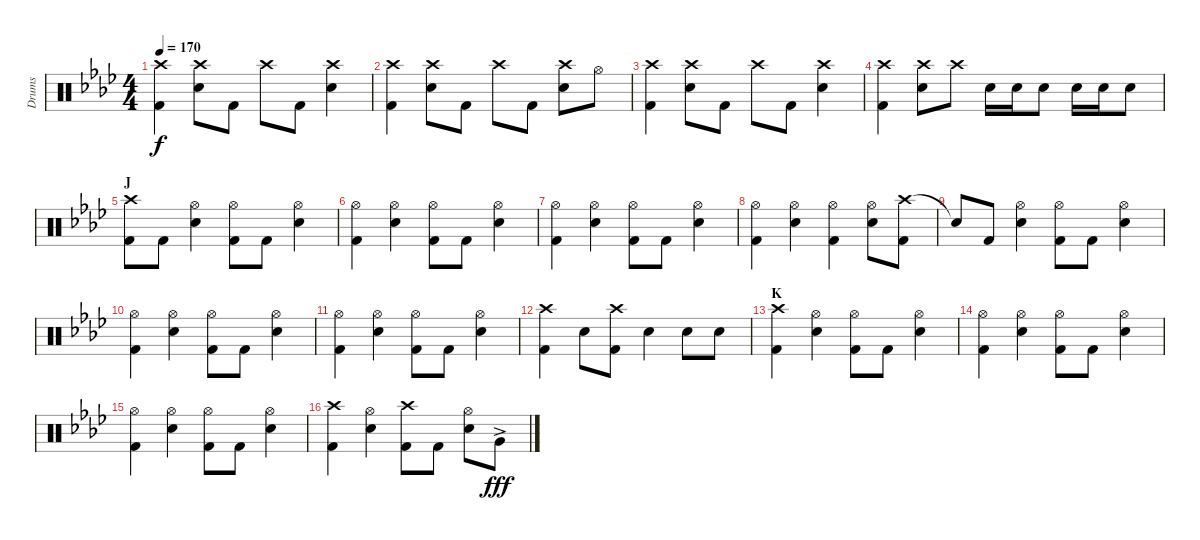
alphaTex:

\track ("Drums" "Drums") {instrument percussion}
\staff {score}
\articulation defaults
\ts (4 4)
\tempo 170
\clef neutral
\ks ab
("Crash high (hit)" "Kick (hit) 2").4{dy f} ("Crash high (hit)" "Snare (hit) 2").8 "Kick (hit) 2".8 "Crash high (hit)".8 "Kick (hit) 2".8 ("Crash high (hit)" "Snare (hit) 2").4 |
("Crash high (hit)" "Kick (hit) 2").4 ("Crash high (hit)" "Snare (hit) 2").8 "Kick (hit) 2".8 "Crash high (hit)".8 "Kick (hit) 2".8 ("Crash high (hit)" "Snare (hit) 2").8 "Hi-Hat (open)".8 |
("Crash high (hit)" "Kick (hit) 2").4 ("Crash high (hit)" "Snare (hit) 2").8 "Kick (hit) 2".8 "Crash high (hit)".8 "Kick (hit) 2".8 ("Crash high (hit)" "Snare (hit) 2").4 |
("Crash high (hit)" "Kick (hit) 2").4 ("Crash high (hit)" "Snare (hit) 2").8 "Crash high (hit)".8 "Snare (hit) 2".16 "Snare (hit) 2".16 "Snare (hit) 2".8 "Snare (hit) 2".16 "Snare (hit) 2".16 "Snare (hit) 2".8 |
\section ("" "J")
("Crash high (hit)" "Kick (hit) 2").8 "Kick (hit) 2".8 ("Hi-Hat (open)" "Snare (hit) 2").4 ("Hi-Hat (open)" "Kick (hit) 2").8 "Kick (hit) 2".8 ("Hi-Hat (open)" "Snare (hit) 2").4 |
("Hi-Hat (open)" "Kick (hit) 2").4 ("Hi-Hat (open)" "Snare (hit) 2").4 ("Hi-Hat (open)" "Kick (hit) 2").8 "Kick (hit) 2".8 ("Hi-Hat (open)" "Snare (hit) 2").4 |
("Hi-Hat (open)" "Kick (hit) 2").4 ("Hi-Hat (open)" "Snare (hit) 2").4 ("Hi-Hat (open)" "Kick (hit) 2").8 "Kick (hit) 2".8 ("Hi-Hat (open)" "Snare (hit) 2").4 |
("Hi-Hat (open)" "Kick (hit) 2").4 ("Hi-Hat (open)" "Snare (hit) 2").4 ("Hi-Hat (open)" "Kick (hit) 2").4 ("Hi-Hat (open)" "Snare (hit) 2").8 ("Crash high (hit)" "Kick (hit) 2").8 |
"Snare (hit)"{t}.8 "Kick (hit) 2".8 ("Hi-Hat (open)" "Snare (hit) 2").4 ("Hi-Hat (open)" "Kick (hit) 2").8 "Kick (hit) 2".8 ("Hi-Hat (open)" "Snare (hit) 2").4 |
("Hi-Hat (open)" "Kick (hit) 2").4 ("Hi-Hat (open)" "Snare (hit) 2").4 ("Hi-Hat (open)" "Kick (hit) 2").8 "Kick (hit) 2".8 ("Hi-Hat (open)" "Snare (hit) 2").4 |
("Hi-Hat (open)" "Kick (hit) 2").4 ("Hi-Hat (open)" "Snare (hit) 2").4 ("Hi-Hat (open)" "Kick (hit) 2").8 "Kick (hit) 2".8 ("Hi-Hat (open)" "Snare (hit) 2").4 |
("Crash high (hit)" "Kick (hit) 2").4 "Snare (hit) 2".8 ("Crash high (hit)" "Kick (hit) 2").8 "Snare (hit) 2".4 "Snare (hit) 2".8 "Snare (hit) 2".8 |
\section ("" "K")
("Crash high (hit)" "Kick (hit) 2").4 ("Hi-Hat (open)" "Snare (hit) 2").4 ("Hi-Hat (open)" "Kick (hit) 2").8 "Kick (hit) 2".8 ("Hi-Hat (open)" "Snare (hit) 2").4 |
("Hi-Hat (open)" "Kick (hit) 2").4 ("Hi-Hat (open)" "Snare (hit) 2").4 ("Hi-Hat (open)" "Kick (hit) 2").8 "Kick (hit) 2".8 ("Hi-Hat (open)" "Snare (hit) 2").4 |
("Hi-Hat (open)" "Kick (hit) 2").4 ("Hi-Hat (open)" "Snare (hit) 2").4 ("Hi-Hat (open)" "Kick (hit) 2").8 "Kick (hit) 2".8 ("Hi-Hat (open)" "Snare (hit) 2").4 |
("Crash high (hit)" "Kick (hit) 2").4 ("Hi-Hat (open)" "Snare (hit) 2").4 ("Crash high (hit)" "Kick (hit) 2").8 "Kick (hit) 2".8 ("Hi-Hat (open)" "Snare (hit) 2").8 "Very Low Tom (hit)"{ac}.8{dy fff}
